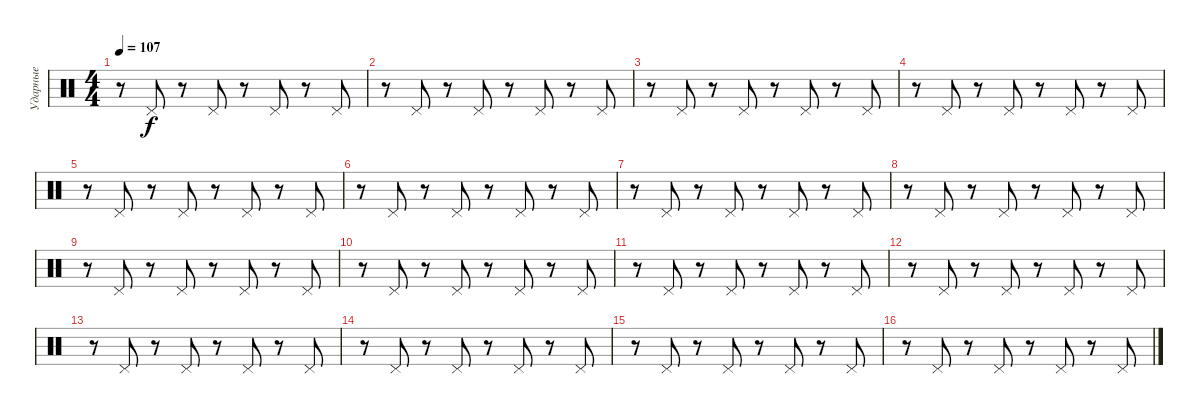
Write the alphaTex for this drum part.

\track ("Ударные" "Ударные") {instrument percussion}
\staff {score}
\articulation defaults
\ts (4 4)
\tempo 107
\clef neutral
\ks c
r.8{dy f} "Pedal Hi-Hat (hit)".8 r.8 "Pedal Hi-Hat (hit)".8 r.8 "Pedal Hi-Hat (hit)".8 r.8 "Pedal Hi-Hat (hit)".8 |
r.8 "Pedal Hi-Hat (hit)".8 r.8 "Pedal Hi-Hat (hit)".8 r.8 "Pedal Hi-Hat (hit)".8 r.8 "Pedal Hi-Hat (hit)".8 |
r.8 "Pedal Hi-Hat (hit)".8 r.8 "Pedal Hi-Hat (hit)".8 r.8 "Pedal Hi-Hat (hit)".8 r.8 "Pedal Hi-Hat (hit)".8 |
r.8 "Pedal Hi-Hat (hit)".8 r.8 "Pedal Hi-Hat (hit)".8 r.8 "Pedal Hi-Hat (hit)".8 r.8 "Pedal Hi-Hat (hit)".8 |
r.8 "Pedal Hi-Hat (hit)".8 r.8 "Pedal Hi-Hat (hit)".8 r.8 "Pedal Hi-Hat (hit)".8 r.8 "Pedal Hi-Hat (hit)".8 |
r.8 "Pedal Hi-Hat (hit)".8 r.8 "Pedal Hi-Hat (hit)".8 r.8 "Pedal Hi-Hat (hit)".8 r.8 "Pedal Hi-Hat (hit)".8 |
r.8 "Pedal Hi-Hat (hit)".8 r.8 "Pedal Hi-Hat (hit)".8 r.8 "Pedal Hi-Hat (hit)".8 r.8 "Pedal Hi-Hat (hit)".8 |
r.8 "Pedal Hi-Hat (hit)".8 r.8 "Pedal Hi-Hat (hit)".8 r.8 "Pedal Hi-Hat (hit)".8 r.8 "Pedal Hi-Hat (hit)".8 |
r.8 "Pedal Hi-Hat (hit)".8 r.8 "Pedal Hi-Hat (hit)".8 r.8 "Pedal Hi-Hat (hit)".8 r.8 "Pedal Hi-Hat (hit)".8 |
r.8 "Pedal Hi-Hat (hit)".8 r.8 "Pedal Hi-Hat (hit)".8 r.8 "Pedal Hi-Hat (hit)".8 r.8 "Pedal Hi-Hat (hit)".8 |
r.8 "Pedal Hi-Hat (hit)".8 r.8 "Pedal Hi-Hat (hit)".8 r.8 "Pedal Hi-Hat (hit)".8 r.8 "Pedal Hi-Hat (hit)".8 |
r.8 "Pedal Hi-Hat (hit)".8 r.8 "Pedal Hi-Hat (hit)".8 r.8 "Pedal Hi-Hat (hit)".8 r.8 "Pedal Hi-Hat (hit)".8 |
r.8 "Pedal Hi-Hat (hit)".8 r.8 "Pedal Hi-Hat (hit)".8 r.8 "Pedal Hi-Hat (hit)".8 r.8 "Pedal Hi-Hat (hit)".8 |
r.8 "Pedal Hi-Hat (hit)".8 r.8 "Pedal Hi-Hat (hit)".8 r.8 "Pedal Hi-Hat (hit)".8 r.8 "Pedal Hi-Hat (hit)".8 |
r.8 "Pedal Hi-Hat (hit)".8 r.8 "Pedal Hi-Hat (hit)".8 r.8 "Pedal Hi-Hat (hit)".8 r.8 "Pedal Hi-Hat (hit)".8 |
r.8 "Pedal Hi-Hat (hit)".8 r.8 "Pedal Hi-Hat (hit)".8 r.8 "Pedal Hi-Hat (hit)".8 r.8 "Pedal Hi-Hat (hit)".8
